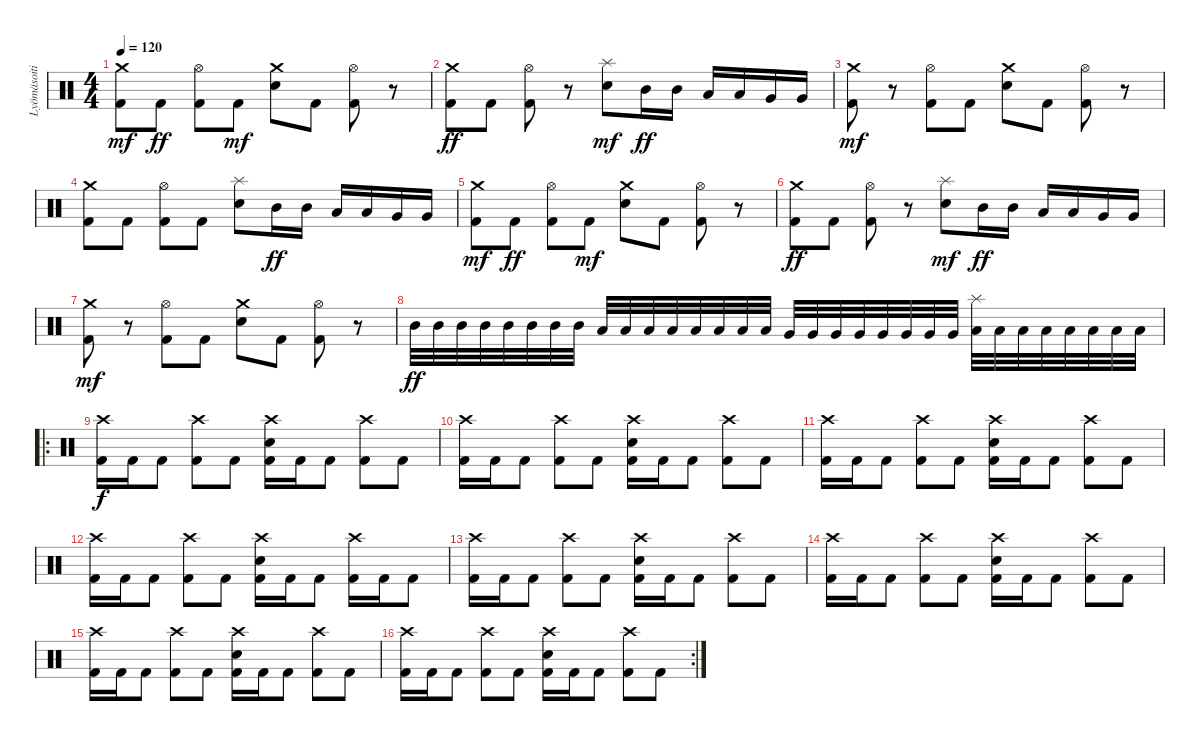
\track ("Lyömäsoitin" "Lyömäsoiti") {instrument percussion}
\staff {score}
\articulation defaults
\ts (4 4)
\tempo 120
\clef neutral
\ks c
("Crash medium (hit)" "Kick (hit) 2").8{dy mf} "Kick (hit) 2".8{dy ff} ("Hi-Hat (open)" "Kick (hit) 2").8 "Kick (hit) 2".8{dy mf} ("Crash medium (hit)" "Snare (hit) 2").8 "Kick (hit) 2".8 ("Hi-Hat (open)" "Kick (hit) 2").8 r.8 |
("Crash medium (hit)" "Kick (hit) 2").8{dy ff} "Kick (hit) 2".8 ("Hi-Hat (open)" "Kick (hit) 2").8 r.8 ("Splash (hit)" "Snare (hit) 2").8{dy mf} "Mid Tom (hit)".16{dy ff} "Mid Tom (hit)".16 "Low Tom (hit)".16 "Low Tom (hit)".16 "Very Low Tom (hit)".16 "Very Low Tom (hit)".16 |
("Crash medium (hit)" "Kick (hit) 2").8{dy mf} r.8 ("Hi-Hat (open)" "Kick (hit) 2").8 "Kick (hit) 2".8 ("Crash medium (hit)" "Snare (hit) 2").8 "Kick (hit) 2".8 ("Hi-Hat (open)" "Kick (hit) 2").8 r.8 |
("Crash medium (hit)" "Kick (hit) 2").8 "Kick (hit) 2".8 ("Hi-Hat (open)" "Kick (hit) 2").8 "Kick (hit) 2".8 ("Splash (hit)" "Snare (hit) 2").8 "Mid Tom (hit)".16{dy ff} "Mid Tom (hit)".16 "Low Tom (hit)".16 "Low Tom (hit)".16 "Very Low Tom (hit)".16 "Very Low Tom (hit)".16 |
("Crash medium (hit)" "Kick (hit) 2").8{dy mf} "Kick (hit) 2".8{dy ff} ("Hi-Hat (open)" "Kick (hit) 2").8 "Kick (hit) 2".8{dy mf} ("Crash medium (hit)" "Snare (hit) 2").8 "Kick (hit) 2".8 ("Hi-Hat (open)" "Kick (hit) 2").8 r.8 |
("Crash medium (hit)" "Kick (hit) 2").8{dy ff} "Kick (hit) 2".8 ("Hi-Hat (open)" "Kick (hit) 2").8 r.8 ("Splash (hit)" "Snare (hit) 2").8{dy mf} "Mid Tom (hit)".16{dy ff} "Mid Tom (hit)".16 "Low Tom (hit)".16 "Low Tom (hit)".16 "Very Low Tom (hit)".16 "Very Low Tom (hit)".16 |
("Crash medium (hit)" "Kick (hit) 2").8{dy mf} r.8 ("Hi-Hat (open)" "Kick (hit) 2").8 "Kick (hit) 2".8 ("Crash medium (hit)" "Snare (hit) 2").8 "Kick (hit) 2".8 ("Hi-Hat (open)" "Kick (hit) 2").8 r.8 |
"Mid Tom (hit)".32{dy ff} "Mid Tom (hit)".32 "Mid Tom (hit)".32 "Mid Tom (hit)".32 "Mid Tom (hit)".32 "Mid Tom (hit)".32 "Mid Tom (hit)".32 "Mid Tom (hit)".32 "Low Tom (hit)".32 "Low Tom (hit)".32 "Low Tom (hit)".32 "Low Tom (hit)".32 "Low Tom (hit)".32 "Low Tom (hit)".32 "Low Tom (hit)".32 "Low Tom (hit)".32 "Very Low Tom (hit)".32 "Very Low Tom (hit)".32 "Very Low Tom (hit)".32 "Very Low Tom (hit)".32 "Very Low Tom (hit)".32 "Very Low Tom (hit)".32 "Very Low Tom (hit)".32 "Very Low Tom (hit)".32 ("Splash (hit)" "Low Floor Tom (hit)").32 "Low Floor Tom (hit)".32 "Low Floor Tom (hit)".32 "Low Floor Tom (hit)".32 "Low Floor Tom (hit)".32 "Low Floor Tom (hit)".32 "Low Floor Tom (hit)".32 "Low Floor Tom (hit)".32 |
\ro
("Crash high (hit)" "Kick (hit) 2").16{dy f} "Kick (hit) 2".16 "Kick (hit) 2".8 ("Crash high (hit)" "Kick (hit) 2").8 "Kick (hit) 2".8 ("Crash high (hit)" "Snare (hit) 2" "Kick (hit) 2").16 "Kick (hit) 2".16 "Kick (hit) 2".8 ("Crash high (hit)" "Kick (hit) 2").8 "Kick (hit) 2".8 |
("Crash high (hit)" "Kick (hit) 2").16 "Kick (hit) 2".16 "Kick (hit) 2".8 ("Crash high (hit)" "Kick (hit) 2").8 "Kick (hit) 2".8 ("Crash high (hit)" "Snare (hit) 2" "Kick (hit) 2").16 "Kick (hit) 2".16 "Kick (hit) 2".8 ("Crash high (hit)" "Kick (hit) 2").8 "Kick (hit) 2".8 |
("Crash high (hit)" "Kick (hit) 2").16 "Kick (hit) 2".16 "Kick (hit) 2".8 ("Crash high (hit)" "Kick (hit) 2").8 "Kick (hit) 2".8 ("Crash high (hit)" "Snare (hit) 2" "Kick (hit) 2").16 "Kick (hit) 2".16 "Kick (hit) 2".8 ("Crash high (hit)" "Kick (hit) 2").8 "Kick (hit) 2".8 |
("Crash high (hit)" "Kick (hit) 2").16 "Kick (hit) 2".16 "Kick (hit) 2".8 ("Crash high (hit)" "Kick (hit) 2").8 "Kick (hit) 2".8 ("Crash high (hit)" "Snare (hit) 2" "Kick (hit) 2").16 "Kick (hit) 2".16 "Kick (hit) 2".8 ("Crash high (hit)" "Kick (hit) 2").16 "Kick (hit) 2".16 "Kick (hit) 2".8 |
("Crash high (hit)" "Kick (hit) 2").16 "Kick (hit) 2".16 "Kick (hit) 2".8 ("Crash high (hit)" "Kick (hit) 2").8 "Kick (hit) 2".8 ("Crash high (hit)" "Snare (hit) 2" "Kick (hit) 2").16 "Kick (hit) 2".16 "Kick (hit) 2".8 ("Crash high (hit)" "Kick (hit) 2").8 "Kick (hit) 2".8 |
("Crash high (hit)" "Kick (hit) 2").16 "Kick (hit) 2".16 "Kick (hit) 2".8 ("Crash high (hit)" "Kick (hit) 2").8 "Kick (hit) 2".8 ("Crash high (hit)" "Snare (hit) 2" "Kick (hit) 2").16 "Kick (hit) 2".16 "Kick (hit) 2".8 ("Crash high (hit)" "Kick (hit) 2").8 "Kick (hit) 2".8 |
("Crash high (hit)" "Kick (hit) 2").16 "Kick (hit) 2".16 "Kick (hit) 2".8 ("Crash high (hit)" "Kick (hit) 2").8 "Kick (hit) 2".8 ("Crash high (hit)" "Snare (hit) 2" "Kick (hit) 2").16 "Kick (hit) 2".16 "Kick (hit) 2".8 ("Crash high (hit)" "Kick (hit) 2").8 "Kick (hit) 2".8 |
\rc 2
("Crash high (hit)" "Kick (hit) 2").16 "Kick (hit) 2".16 "Kick (hit) 2".8 ("Crash high (hit)" "Kick (hit) 2").8 "Kick (hit) 2".8 ("Crash high (hit)" "Snare (hit) 2" "Kick (hit) 2").16 "Kick (hit) 2".16 "Kick (hit) 2".8 ("Crash high (hit)" "Kick (hit) 2").8 "Kick (hit) 2".8
